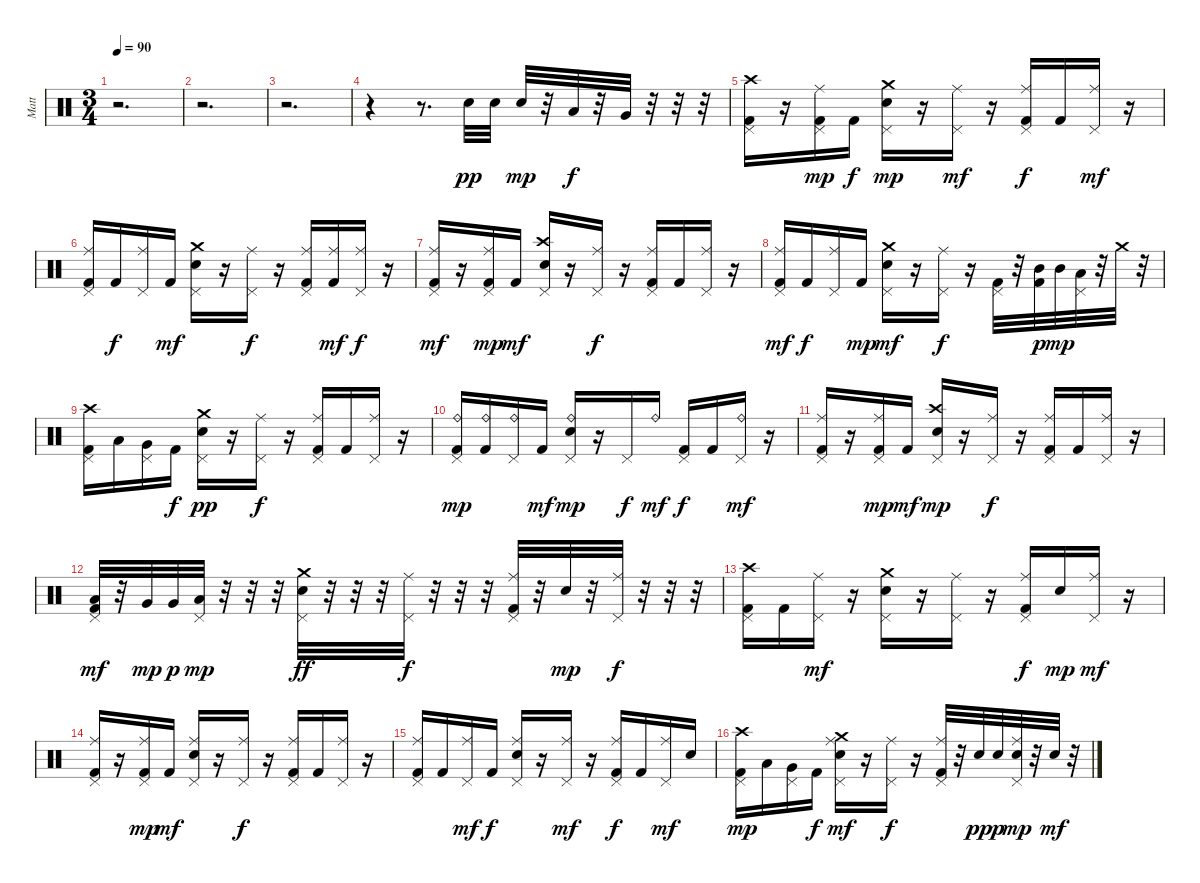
\track ("Matt" "Matt") {instrument percussion}
\staff {score}
\articulation defaults
\ts (3 4)
\tempo 90
\clef neutral
\ks c
r.2{d dy pp} |
r.2{d} |
r.2{d} |
r.4 r.8{d} "Electric Snare (hit)".32 "Electric Snare (hit)".32 "Electric Snare (hit)".32{dy mp} r.32 "Low Tom (hit)".32{dy f} r.32 "Very Low Tom (hit)".32 r.32 r.32 r.32 |
("Crash high (hit)" "Pedal Hi-Hat (hit)" "Kick (hit) 2").16 r.16 ("Pedal Hi-Hat (hit)" "Ride (middle)" "Kick (hit) 2").16{dy mp} "Kick (hit) 2".16{dy f} ("Crash medium (hit)" "Pedal Hi-Hat (hit)" "Electric Snare (hit)").16{dy mp} r.16 ("Pedal Hi-Hat (hit)" "Ride (middle)").16{dy mf} r.16 ("Pedal Hi-Hat (hit)" "Ride (middle)" "Kick (hit) 2").16{dy f} "Kick (hit) 2".16 ("Pedal Hi-Hat (hit)" "Ride (middle)").16{dy mf} r.16 |
("Pedal Hi-Hat (hit)" "Ride (middle)" "Kick (hit) 2").16 "Kick (hit) 2".16{dy f} ("Pedal Hi-Hat (hit)" "Ride (middle)").16 "Kick (hit) 2".16{dy mf} ("Crash medium (hit)" "Pedal Hi-Hat (hit)" "Electric Snare (hit)").16 r.16 ("Pedal Hi-Hat (hit)" "Ride (middle)").16{dy f} r.16 ("Pedal Hi-Hat (hit)" "Ride (middle)" "Kick (hit) 2").16 ("Ride (middle)" "Kick (hit) 2").16{dy mf} ("Pedal Hi-Hat (hit)" "Ride (middle)").16{dy f} r.16 |
("Pedal Hi-Hat (hit)" "Ride (middle)" "Kick (hit) 2").16{dy mf} r.16 ("Pedal Hi-Hat (hit)" "Ride (middle)" "Kick (hit) 2").16{dy mp} "Kick (hit) 2".16{dy mf} ("Crash high (hit)" "Pedal Hi-Hat (hit)" "Electric Snare (hit)").16 r.16 ("Pedal Hi-Hat (hit)" "Ride (middle)").16{dy f} r.16 ("Pedal Hi-Hat (hit)" "Ride (middle)" "Kick (hit) 2").16 "Kick (hit) 2".16 ("Pedal Hi-Hat (hit)" "Ride (middle)").16 r.16 |
("Pedal Hi-Hat (hit)" "Ride (middle)" "Kick (hit) 2").16{dy mf} "Kick (hit) 2".16{dy f} ("Pedal Hi-Hat (hit)" "Ride (middle)").16 "Kick (hit) 2".16{dy mp} ("Crash medium (hit)" "Pedal Hi-Hat (hit)" "Electric Snare (hit)").16{dy mf} r.16 ("Pedal Hi-Hat (hit)" "Ride (middle)").16{dy f} r.16 ("Pedal Hi-Hat (hit)" "Kick (hit) 2").32 r.32 ("Mid Tom (hit)" "Kick (hit) 2").32{dy p} "Mid Tom (hit)".32{dy mp} ("Pedal Hi-Hat (hit)" "Low Tom (hit)").32 r.32 "Crash medium (hit)".32 r.32 |
("Crash high (hit)" "Pedal Hi-Hat (hit)" "Kick (hit) 2").16 "Low Tom (hit)".16 ("Pedal Hi-Hat (hit)" "Very Low Tom (hit)").16 "Kick (hit) 2".16{dy f} ("Crash medium (hit)" "Pedal Hi-Hat (hit)" "Electric Snare (hit)").16{dy pp} r.16 ("Pedal Hi-Hat (hit)" "Ride (middle)").16{dy f} r.16 ("Pedal Hi-Hat (hit)" "Ride (middle)" "Kick (hit) 2").16 "Kick (hit) 2".16 ("Pedal Hi-Hat (hit)" "Ride (middle)").16 r.16 |
("Ride (bell)" "Pedal Hi-Hat (hit)" "Kick (hit) 2").16{dy mp} ("Ride (bell)" "Kick (hit) 2").16 ("Ride (bell)" "Pedal Hi-Hat (hit)").16 "Kick (hit) 2".16{dy mf} ("Ride (bell)" "Pedal Hi-Hat (hit)" "Electric Snare (hit)").16{dy mp} r.16 "Pedal Hi-Hat (hit)".16{dy f} "Ride (bell)".16{dy mf} ("Pedal Hi-Hat (hit)" "Kick (hit) 2").16{dy f} "Kick (hit) 2".16 ("Ride (bell)" "Pedal Hi-Hat (hit)").16{dy mf} r.16 |
("Pedal Hi-Hat (hit)" "Ride (middle)" "Kick (hit) 2").16 r.16 ("Pedal Hi-Hat (hit)" "Ride (middle)" "Kick (hit) 2").16{dy mp} "Kick (hit) 2".16{dy mf} ("Crash high (hit)" "Pedal Hi-Hat (hit)" "Electric Snare (hit)").16{dy mp} r.16 ("Pedal Hi-Hat (hit)" "Ride (middle)").16{dy f} r.16 ("Pedal Hi-Hat (hit)" "Ride (middle)" "Kick (hit) 2").16 "Kick (hit) 2".16 ("Pedal Hi-Hat (hit)" "Ride (middle)").16 r.16 |
("Pedal Hi-Hat (hit)" "Low Tom (hit)" "Kick (hit) 2").32{dy mf} r.32 "Very Low Tom (hit)".32{dy mp} "Very Low Tom (hit)".32{dy p} ("Pedal Hi-Hat (hit)" "Low Floor Tom (hit)").32{dy mp} r.32 r.32 r.32 ("Crash medium (hit)" "Pedal Hi-Hat (hit)" "Electric Snare (hit)").32{dy ff} r.32 r.32 r.32 ("Pedal Hi-Hat (hit)" "Ride (middle)").32{dy f} r.32 r.32 r.32 ("Pedal Hi-Hat (hit)" "Ride (middle)" "Kick (hit) 2").32 r.32 "Electric Snare (hit)".32{dy mp} r.32 ("Pedal Hi-Hat (hit)" "Ride (middle)").32{dy f} r.32 r.32 r.32 |
("Crash high (hit)" "Pedal Hi-Hat (hit)" "Kick (hit) 2").16 "Kick (hit) 2".16 ("Pedal Hi-Hat (hit)" "Ride (middle)").16{dy mf} r.16 ("Crash medium (hit)" "Pedal Hi-Hat (hit)" "Electric Snare (hit)").16 r.16 ("Pedal Hi-Hat (hit)" "Ride (middle)").16 r.16 ("Pedal Hi-Hat (hit)" "Ride (middle)" "Kick (hit) 2").16{dy f} "Electric Snare (hit)".16{dy mp} ("Pedal Hi-Hat (hit)" "Ride (middle)").16{dy mf} r.16 |
("Pedal Hi-Hat (hit)" "Ride (middle)" "Kick (hit) 2").16 r.16 ("Pedal Hi-Hat (hit)" "Ride (middle)" "Kick (hit) 2").16{dy mp} "Kick (hit) 2".16{dy mf} ("Pedal Hi-Hat (hit)" "Ride (middle)" "Electric Snare (hit)").16 r.16 ("Pedal Hi-Hat (hit)" "Ride (middle)").16{dy f} r.16 ("Pedal Hi-Hat (hit)" "Ride (middle)" "Kick (hit) 2").16 "Kick (hit) 2".16 ("Pedal Hi-Hat (hit)" "Ride (middle)").16 r.16 |
("Pedal Hi-Hat (hit)" "Ride (middle)" "Kick (hit) 2").16 "Kick (hit) 2".16 ("Pedal Hi-Hat (hit)" "Ride (middle)").16{dy mf} "Kick (hit) 2".16{dy f} ("Pedal Hi-Hat (hit)" "Ride (middle)" "Electric Snare (hit)").16 r.16 ("Pedal Hi-Hat (hit)" "Ride (middle)").16{dy mf} r.16 ("Pedal Hi-Hat (hit)" "Ride (middle)" "Kick (hit) 2").16{dy f} "Kick (hit) 2".16 ("Pedal Hi-Hat (hit)" "Ride (middle)").16{dy mf} "Electric Snare (hit)".16 |
("Crash high (hit)" "Pedal Hi-Hat (hit)" "Kick (hit) 2").16{dy mp} "Low Tom (hit)".16 ("Pedal Hi-Hat (hit)" "Very Low Tom (hit)").16 "Kick (hit) 2".16{dy f} ("Crash medium (hit)" "Pedal Hi-Hat (hit)" "Ride (middle)" "Electric Snare (hit)").16{dy mf} r.16 ("Pedal Hi-Hat (hit)" "Ride (middle)").16{dy f} r.16 ("Pedal Hi-Hat (hit)" "Ride (middle)" "Kick (hit) 2").32 r.32 "Electric Snare (hit)".32{dy pp} "Electric Snare (hit)".32{dy p} ("Pedal Hi-Hat (hit)" "Ride (middle)" "Electric Snare (hit)").32{dy mp} r.32 "Electric Snare (hit)".32{dy mf} r.32
